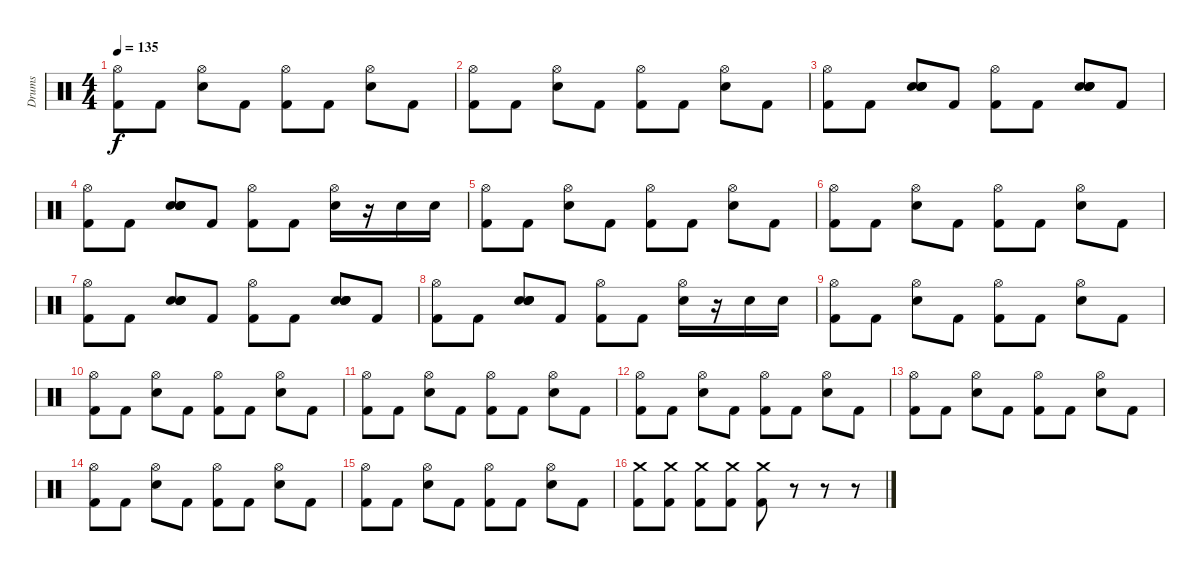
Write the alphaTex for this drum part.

\track ("Drums" "Drums") {instrument percussion}
\staff {score}
\articulation defaults
\ts (4 4)
\tempo 135
\clef neutral
\ks c
("Hi-Hat (open)" "Kick (hit) 2").8{dy f} "Kick (hit) 2".8 ("Hi-Hat (open)" "Electric Snare (hit)").8 "Kick (hit) 2".8 ("Hi-Hat (open)" "Kick (hit) 2").8 "Kick (hit) 2".8 ("Hi-Hat (open)" "Electric Snare (hit)").8 "Kick (hit) 2".8 |
("Hi-Hat (open)" "Kick (hit) 2").8 "Kick (hit) 2".8 ("Hi-Hat (open)" "Electric Snare (hit)").8 "Kick (hit) 2".8 ("Hi-Hat (open)" "Kick (hit) 2").8 "Kick (hit) 2".8 ("Hi-Hat (open)" "Electric Snare (hit)").8 "Kick (hit) 2".8 |
("Hi-Hat (open)" "Kick (hit) 2").8 "Kick (hit) 2".8 ("Electric Snare (hit)" "Electric Snare (hit)" "Electric Snare (hit)" "Electric Snare (hit)").8 "Kick (hit) 2".8 ("Hi-Hat (open)" "Kick (hit) 2").8 "Kick (hit) 2".8 ("Electric Snare (hit)" "Electric Snare (hit)" "Electric Snare (hit)" "Electric Snare (hit)").8 "Kick (hit) 2".8 |
("Hi-Hat (open)" "Kick (hit) 2").8 "Kick (hit) 2".8 ("Electric Snare (hit)" "Electric Snare (hit)" "Electric Snare (hit)" "Electric Snare (hit)").8 "Kick (hit) 2".8 ("Hi-Hat (open)" "Kick (hit) 2").8 "Kick (hit) 2".8 ("Hi-Hat (open)" "Electric Snare (hit)").16 r.16 "Electric Snare (hit)".16 "Electric Snare (hit)".16 |
("Hi-Hat (open)" "Kick (hit) 2").8 "Kick (hit) 2".8 ("Hi-Hat (open)" "Electric Snare (hit)").8 "Kick (hit) 2".8 ("Hi-Hat (open)" "Kick (hit) 2").8 "Kick (hit) 2".8 ("Hi-Hat (open)" "Electric Snare (hit)").8 "Kick (hit) 2".8 |
("Hi-Hat (open)" "Kick (hit) 2").8 "Kick (hit) 2".8 ("Hi-Hat (open)" "Electric Snare (hit)").8 "Kick (hit) 2".8 ("Hi-Hat (open)" "Kick (hit) 2").8 "Kick (hit) 2".8 ("Hi-Hat (open)" "Electric Snare (hit)").8 "Kick (hit) 2".8 |
("Hi-Hat (open)" "Kick (hit) 2").8 "Kick (hit) 2".8 ("Electric Snare (hit)" "Electric Snare (hit)" "Electric Snare (hit)" "Electric Snare (hit)").8 "Kick (hit) 2".8 ("Hi-Hat (open)" "Kick (hit) 2").8 "Kick (hit) 2".8 ("Electric Snare (hit)" "Electric Snare (hit)" "Electric Snare (hit)" "Electric Snare (hit)").8 "Kick (hit) 2".8 |
("Hi-Hat (open)" "Kick (hit) 2").8 "Kick (hit) 2".8 ("Electric Snare (hit)" "Electric Snare (hit)" "Electric Snare (hit)" "Electric Snare (hit)").8 "Kick (hit) 2".8 ("Hi-Hat (open)" "Kick (hit) 2").8 "Kick (hit) 2".8 ("Hi-Hat (open)" "Electric Snare (hit)").16 r.16 "Electric Snare (hit)".16 "Electric Snare (hit)".16 |
("Hi-Hat (open)" "Kick (hit) 2").8 "Kick (hit) 2".8 ("Hi-Hat (open)" "Electric Snare (hit)").8 "Kick (hit) 2".8 ("Hi-Hat (open)" "Kick (hit) 2").8 "Kick (hit) 2".8 ("Hi-Hat (open)" "Electric Snare (hit)").8 "Kick (hit) 2".8 |
("Hi-Hat (open)" "Kick (hit) 2").8 "Kick (hit) 2".8 ("Hi-Hat (open)" "Electric Snare (hit)").8 "Kick (hit) 2".8 ("Hi-Hat (open)" "Kick (hit) 2").8 "Kick (hit) 2".8 ("Hi-Hat (open)" "Electric Snare (hit)").8 "Kick (hit) 2".8 |
("Hi-Hat (open)" "Kick (hit) 2").8 "Kick (hit) 2".8 ("Hi-Hat (open)" "Electric Snare (hit)").8 "Kick (hit) 2".8 ("Hi-Hat (open)" "Kick (hit) 2").8 "Kick (hit) 2".8 ("Hi-Hat (open)" "Electric Snare (hit)").8 "Kick (hit) 2".8 |
("Hi-Hat (open)" "Kick (hit) 2").8 "Kick (hit) 2".8 ("Hi-Hat (open)" "Electric Snare (hit)").8 "Kick (hit) 2".8 ("Hi-Hat (open)" "Kick (hit) 2").8 "Kick (hit) 2".8 ("Hi-Hat (open)" "Electric Snare (hit)").8 "Kick (hit) 2".8 |
("Hi-Hat (open)" "Kick (hit) 2").8 "Kick (hit) 2".8 ("Hi-Hat (open)" "Electric Snare (hit)").8 "Kick (hit) 2".8 ("Hi-Hat (open)" "Kick (hit) 2").8 "Kick (hit) 2".8 ("Hi-Hat (open)" "Electric Snare (hit)").8 "Kick (hit) 2".8 |
("Hi-Hat (open)" "Kick (hit) 2").8 "Kick (hit) 2".8 ("Hi-Hat (open)" "Electric Snare (hit)").8 "Kick (hit) 2".8 ("Hi-Hat (open)" "Kick (hit) 2").8 "Kick (hit) 2".8 ("Hi-Hat (open)" "Electric Snare (hit)").8 "Kick (hit) 2".8 |
("Hi-Hat (open)" "Kick (hit) 2").8 "Kick (hit) 2".8 ("Hi-Hat (open)" "Electric Snare (hit)").8 "Kick (hit) 2".8 ("Hi-Hat (open)" "Kick (hit) 2").8 "Kick (hit) 2".8 ("Hi-Hat (open)" "Electric Snare (hit)").8 "Kick (hit) 2".8 |
("Crash medium (hit)" "Kick (hit) 2").8 ("Crash medium (hit)" "Kick (hit) 2").8 ("Crash medium (hit)" "Kick (hit) 2").8 ("Crash medium (hit)" "Kick (hit) 2").8 ("Crash medium (hit)" "Kick (hit) 2").8 r.8 r.8 r.8
